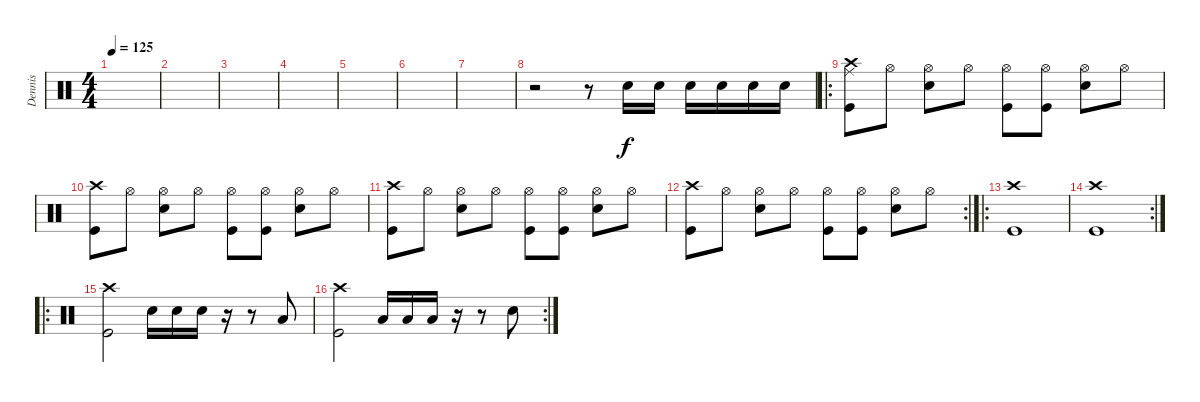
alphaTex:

\track ("Dennis" "Dennis") {instrument percussion}
\staff {score}
\articulation defaults
\ts (4 4)
\tempo 125
\clef neutral
\ks c
|
|
|
|
|
|
|
r.2 r.8 "Electric Snare (hit)".16 "Electric Snare (hit)".16 "Electric Snare (hit)".16 "Electric Snare (hit)".16 "Electric Snare (hit)".16 "Electric Snare (hit)".16 |
\ro
("Kick (hit)" "Crash high (hit)" "Ride (middle)").8 "Hi-Hat (open)".8 ("Hi-Hat (open)" "Electric Snare (hit)").8 "Hi-Hat (open)".8 ("Hi-Hat (open)" "Kick (hit)").8 ("Hi-Hat (open)" "Kick (hit)").8 ("Hi-Hat (open)" "Electric Snare (hit)").8 "Hi-Hat (open)".8 |
("Kick (hit)" "Crash high (hit)").8 "Hi-Hat (open)".8 ("Hi-Hat (open)" "Electric Snare (hit)").8 "Hi-Hat (open)".8 ("Hi-Hat (open)" "Kick (hit)").8 ("Hi-Hat (open)" "Kick (hit)").8 ("Hi-Hat (open)" "Electric Snare (hit)").8 "Hi-Hat (open)".8 |
("Kick (hit)" "Crash high (hit)").8 "Hi-Hat (open)".8 ("Hi-Hat (open)" "Electric Snare (hit)").8 "Hi-Hat (open)".8 ("Hi-Hat (open)" "Kick (hit)").8 ("Hi-Hat (open)" "Kick (hit)").8 ("Hi-Hat (open)" "Electric Snare (hit)").8 "Hi-Hat (open)".8 |
\rc 2
("Kick (hit)" "Crash high (hit)").8 "Hi-Hat (open)".8 ("Hi-Hat (open)" "Electric Snare (hit)").8 "Hi-Hat (open)".8 ("Hi-Hat (open)" "Kick (hit)").8 ("Hi-Hat (open)" "Kick (hit)").8 ("Hi-Hat (open)" "Electric Snare (hit)").8 "Hi-Hat (open)".8 |
\ro
("Kick (hit)" "Crash high (hit)").1 |
\rc 2
("Kick (hit)" "Crash high (hit)").1 |
\ro
("Kick (hit)" "Crash high (hit)").2 "Electric Snare (hit)".16 "Electric Snare (hit)".16 "Electric Snare (hit)".16 r.16 r.8 "Low Tom (hit)".8 |
\rc 2
("Kick (hit)" "Crash high (hit)").2 "Low Tom (hit)".16 "Low Tom (hit)".16 "Low Tom (hit)".16 r.16 r.8 "Electric Snare (hit)".8
